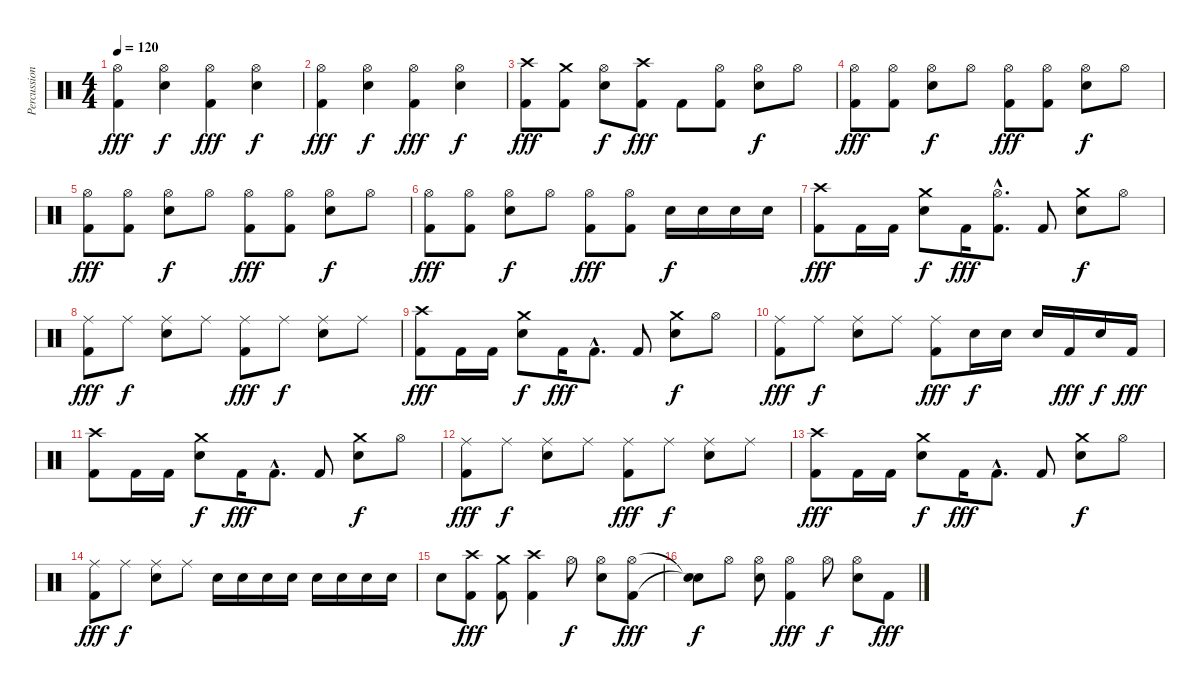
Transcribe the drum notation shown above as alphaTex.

\track ("Percussion" "Percussion") {instrument percussion}
\staff {score}
\articulation defaults
\ts (4 4)
\tempo 120
\clef neutral
\ks c
("Hi-Hat (open)" "Kick (hit) 2").4{dy fff} ("Hi-Hat (open)" "Snare (hit) 2").4{dy f} ("Hi-Hat (open)" "Kick (hit) 2").4{dy fff} ("Hi-Hat (open)" "Snare (hit) 2").4{dy f} |
("Hi-Hat (open)" "Kick (hit) 2").4{dy fff} ("Hi-Hat (open)" "Snare (hit) 2").4{dy f} ("Hi-Hat (open)" "Kick (hit) 2").4{dy fff} ("Hi-Hat (open)" "Snare (hit) 2").4{dy f} |
("Crash high (hit)" "Kick (hit) 2").8{dy fff} ("Crash medium (hit)" "Kick (hit) 2").8 ("Hi-Hat (open)" "Snare (hit) 2").8{dy f} ("Crash high (hit)" "Kick (hit) 2").8{dy fff} "Kick (hit) 2".8 ("Hi-Hat (open)" "Kick (hit) 2").8 ("Hi-Hat (open)" "Snare (hit) 2").8{dy f} "Hi-Hat (open)".8 |
("Hi-Hat (open)" "Kick (hit) 2").8{dy fff} ("Hi-Hat (open)" "Kick (hit) 2").8 ("Hi-Hat (open)" "Snare (hit) 2").8{dy f} "Hi-Hat (open)".8 ("Hi-Hat (open)" "Kick (hit) 2").8{dy fff} ("Hi-Hat (open)" "Kick (hit) 2").8 ("Hi-Hat (open)" "Snare (hit) 2").8{dy f} "Hi-Hat (open)".8 |
("Hi-Hat (open)" "Kick (hit) 2").8{dy fff} ("Hi-Hat (open)" "Kick (hit) 2").8 ("Hi-Hat (open)" "Snare (hit) 2").8{dy f} "Hi-Hat (open)".8 ("Hi-Hat (open)" "Kick (hit) 2").8{dy fff} ("Hi-Hat (open)" "Kick (hit) 2").8 ("Hi-Hat (open)" "Snare (hit) 2").8{dy f} "Hi-Hat (open)".8 |
("Hi-Hat (open)" "Kick (hit) 2").8{dy fff} ("Hi-Hat (open)" "Kick (hit) 2").8 ("Hi-Hat (open)" "Snare (hit) 2").8{dy f} "Hi-Hat (open)".8 ("Hi-Hat (open)" "Kick (hit) 2").8{dy fff} ("Hi-Hat (open)" "Kick (hit) 2").8 "Snare (hit) 2".16{dy f} "Snare (hit) 2".16 "Snare (hit) 2".16 "Snare (hit) 2".16 |
("Crash high (hit)" "Kick (hit) 2").8{dy fff} "Kick (hit) 2".16 "Kick (hit) 2".16 ("Crash medium (hit)" "Snare (hit) 2").8{dy f} "Kick (hit) 2".16{dy fff} ("Hi-Hat (open)"{hac} "Kick (hit) 2"{hac}).8{d} "Kick (hit) 2".8 ("Crash medium (hit)" "Snare (hit) 2").8{dy f} "Hi-Hat (open)".8 |
("Ride (middle)" "Kick (hit) 2").8{dy fff} "Ride (middle)".8{dy f} ("Ride (middle)" "Snare (hit) 2").8 "Ride (middle)".8 ("Ride (middle)" "Kick (hit) 2").8{dy fff} "Ride (middle)".8{dy f} ("Ride (middle)" "Snare (hit) 2").8 "Ride (middle)".8 |
("Crash high (hit)" "Kick (hit) 2").8{dy fff} "Kick (hit) 2".16 "Kick (hit) 2".16 ("Crash medium (hit)" "Snare (hit) 2").8{dy f} "Kick (hit) 2".16{dy fff} "Kick (hit) 2"{hac}.8{d} "Kick (hit) 2".8 ("Crash medium (hit)" "Snare (hit) 2").8{dy f} "Hi-Hat (open)".8 |
("Ride (middle)" "Kick (hit) 2").8{dy fff} "Ride (middle)".8{dy f} ("Ride (middle)" "Snare (hit) 2").8 "Ride (middle)".8 ("Ride (middle)" "Kick (hit) 2").8{dy fff} "Snare (hit) 2".16{dy f} "Snare (hit) 2".16 "Snare (hit) 2".16 "Kick (hit) 2".16{dy fff} "Snare (hit) 2".16{dy f} "Kick (hit) 2".16{dy fff} |
("Crash high (hit)" "Kick (hit) 2").8 "Kick (hit) 2".16 "Kick (hit) 2".16 ("Crash medium (hit)" "Snare (hit) 2").8{dy f} "Kick (hit) 2".16{dy fff} "Kick (hit) 2"{hac}.8{d} "Kick (hit) 2".8 ("Crash medium (hit)" "Snare (hit) 2").8{dy f} "Hi-Hat (open)".8 |
("Ride (middle)" "Kick (hit) 2").8{dy fff} "Ride (middle)".8{dy f} ("Ride (middle)" "Snare (hit) 2").8 "Ride (middle)".8 ("Ride (middle)" "Kick (hit) 2").8{dy fff} "Ride (middle)".8{dy f} ("Ride (middle)" "Snare (hit) 2").8 "Ride (middle)".8 |
("Crash high (hit)" "Kick (hit) 2").8{dy fff} "Kick (hit) 2".16 "Kick (hit) 2".16 ("Crash medium (hit)" "Snare (hit) 2").8{dy f} "Kick (hit) 2".16{dy fff} "Kick (hit) 2"{hac}.8{d} "Kick (hit) 2".8 ("Crash medium (hit)" "Snare (hit) 2").8{dy f} "Hi-Hat (open)".8 |
("Ride (middle)" "Kick (hit) 2").8{dy fff} "Ride (middle)".8{dy f} ("Ride (middle)" "Snare (hit) 2").8 "Ride (middle)".8 "Snare (hit) 2".16 "Snare (hit) 2".16 "Snare (hit) 2".16 "Snare (hit) 2".16 "Snare (hit) 2".16 "Snare (hit) 2".16 "Snare (hit) 2".16 "Snare (hit) 2".16 |
"Snare (hit) 2".8 ("Crash high (hit)" "Kick (hit) 2").8{dy fff} ("Crash medium (hit)" "Kick (hit) 2").8 ("Crash high (hit)" "Kick (hit) 2").4 "Hi-Hat (open)".8{dy f} ("Hi-Hat (open)" "Snare (hit) 2").8 ("Hi-Hat (open)" "Kick (hit) 2").8{dy fff} |
("Snare (hit)"{t} "Snare (hit)"{t}).8{dy f} "Hi-Hat (open)".8 ("Hi-Hat (open)" "Snare (hit) 2").8 ("Hi-Hat (open)" "Kick (hit) 2").4{dy fff} "Hi-Hat (open)".8{dy f} ("Hi-Hat (open)" "Snare (hit) 2").8 "Kick (hit) 2".8{dy fff}
